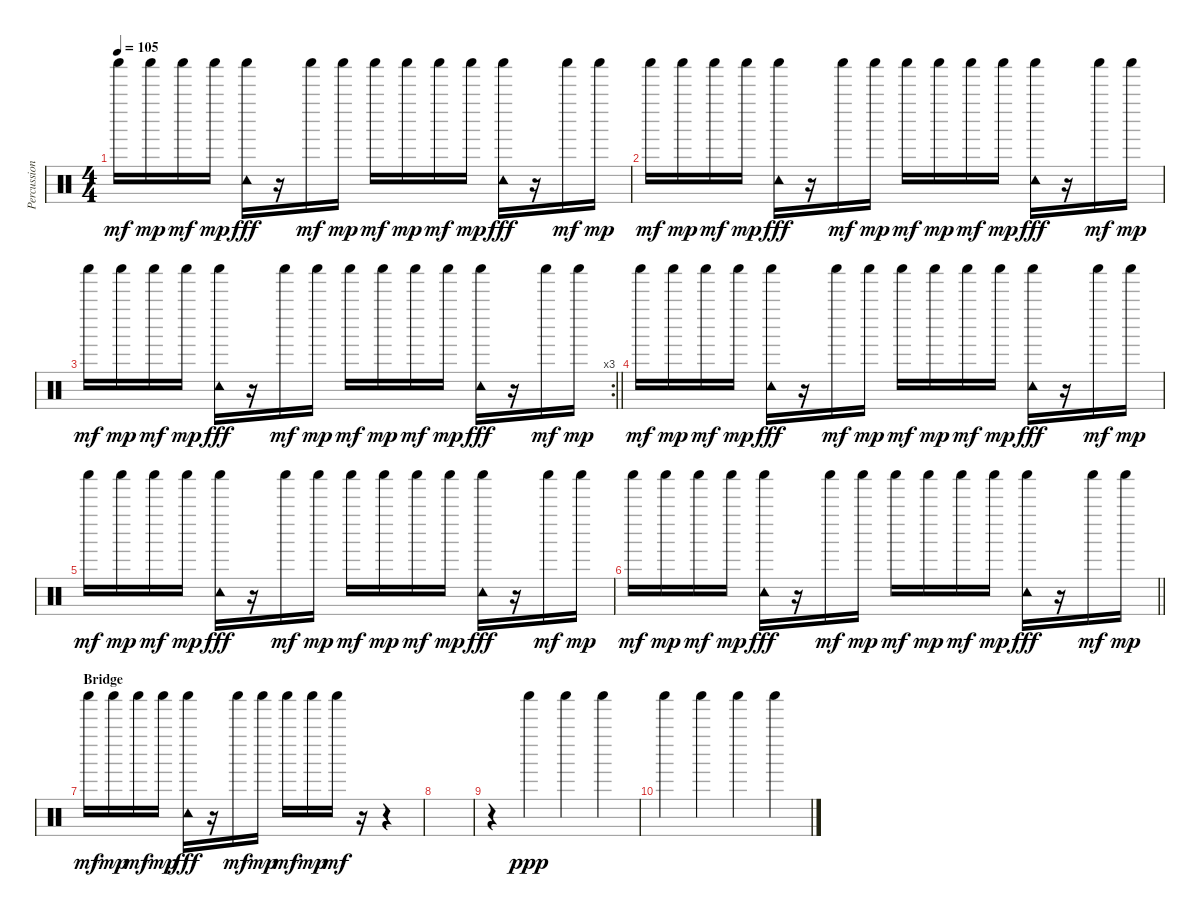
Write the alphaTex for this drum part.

\track ("Percussion" "Percussion") {instrument percussion}
\staff {score}
\articulation defaults
\ts (4 4)
\tempo 105
\clef neutral
\ks c "Shaker (hit)".16{dy mf} "Shaker (hit)".16{dy mp} "Shaker (hit)".16{dy mf} "Shaker (hit)".16{dy mp}
("Shaker (hit)" "Tambourine (hit)").16{dy fff} r.16 "Shaker (hit)".16{dy mf} "Shaker (hit)".16{dy mp} "Shaker (hit)".16{dy mf} "Shaker (hit)".16{dy mp} "Shaker (hit)".16{dy mf} "Shaker (hit)".16{dy mp} ("Shaker (hit)" "Tambourine (hit)").16{dy fff} r.16 "Shaker (hit)".16{dy mf} "Shaker (hit)".16{dy mp} |
"Shaker (hit)".16{dy mf} "Shaker (hit)".16{dy mp} "Shaker (hit)".16{dy mf} "Shaker (hit)".16{dy mp} ("Shaker (hit)" "Tambourine (hit)").16{dy fff} r.16 "Shaker (hit)".16{dy mf} "Shaker (hit)".16{dy mp} "Shaker (hit)".16{dy mf} "Shaker (hit)".16{dy mp} "Shaker (hit)".16{dy mf} "Shaker (hit)".16{dy mp} ("Shaker (hit)" "Tambourine (hit)").16{dy fff} r.16 "Shaker (hit)".16{dy mf} "Shaker (hit)".16{dy mp} |
\rc 3
\barLineRight lightlight "Shaker (hit)".16{dy mf} "Shaker (hit)".16{dy mp} "Shaker (hit)".16{dy mf} "Shaker (hit)".16{dy mp}
("Shaker (hit)" "Tambourine (hit)").16{dy fff} r.16 "Shaker (hit)".16{dy mf} "Shaker (hit)".16{dy mp} "Shaker (hit)".16{dy mf} "Shaker (hit)".16{dy mp} "Shaker (hit)".16{dy mf} "Shaker (hit)".16{dy mp} ("Shaker (hit)" "Tambourine (hit)").16{dy fff} r.16 "Shaker (hit)".16{dy mf} "Shaker (hit)".16{dy mp} |
"Shaker (hit)".16{dy mf} "Shaker (hit)".16{dy mp} "Shaker (hit)".16{dy mf} "Shaker (hit)".16{dy mp} ("Shaker (hit)" "Tambourine (hit)").16{dy fff} r.16 "Shaker (hit)".16{dy mf} "Shaker (hit)".16{dy mp} "Shaker (hit)".16{dy mf} "Shaker (hit)".16{dy mp} "Shaker (hit)".16{dy mf} "Shaker (hit)".16{dy mp} ("Shaker (hit)" "Tambourine (hit)").16{dy fff} r.16 "Shaker (hit)".16{dy mf} "Shaker (hit)".16{dy mp} |
"Shaker (hit)".16{dy mf} "Shaker (hit)".16{dy mp} "Shaker (hit)".16{dy mf} "Shaker (hit)".16{dy mp} ("Shaker (hit)" "Tambourine (hit)").16{dy fff} r.16 "Shaker (hit)".16{dy mf} "Shaker (hit)".16{dy mp} "Shaker (hit)".16{dy mf} "Shaker (hit)".16{dy mp} "Shaker (hit)".16{dy mf} "Shaker (hit)".16{dy mp} ("Shaker (hit)" "Tambourine (hit)").16{dy fff} r.16 "Shaker (hit)".16{dy mf} "Shaker (hit)".16{dy mp} |
\barLineRight lightlight "Shaker (hit)".16{dy mf} "Shaker (hit)".16{dy mp} "Shaker (hit)".16{dy mf} "Shaker (hit)".16{dy mp}
("Shaker (hit)" "Tambourine (hit)").16{dy fff} r.16 "Shaker (hit)".16{dy mf} "Shaker (hit)".16{dy mp} "Shaker (hit)".16{dy mf} "Shaker (hit)".16{dy mp} "Shaker (hit)".16{dy mf} "Shaker (hit)".16{dy mp} ("Shaker (hit)" "Tambourine (hit)").16{dy fff} r.16 "Shaker (hit)".16{dy mf} "Shaker (hit)".16{dy mp} |
\section ("" "Bridge")
"Shaker (hit)".16{dy mf} "Shaker (hit)".16{dy mp} "Shaker (hit)".16{dy mf} "Shaker (hit)".16{dy mp} ("Shaker (hit)" "Tambourine (hit)").16{dy fff} r.16 "Shaker (hit)".16{dy mf} "Shaker (hit)".16{dy mp} "Shaker (hit)".16{dy mf} "Shaker (hit)".16{dy mp} "Shaker (hit)".16{dy mf} r.16 r.4 |
|
r.4 "Shaker (hit)".4{dy ppp} "Shaker (hit)".4 "Shaker (hit)".4 |
"Shaker (hit)".4 "Shaker (hit)".4 "Shaker (hit)".4 "Shaker (hit)".4
